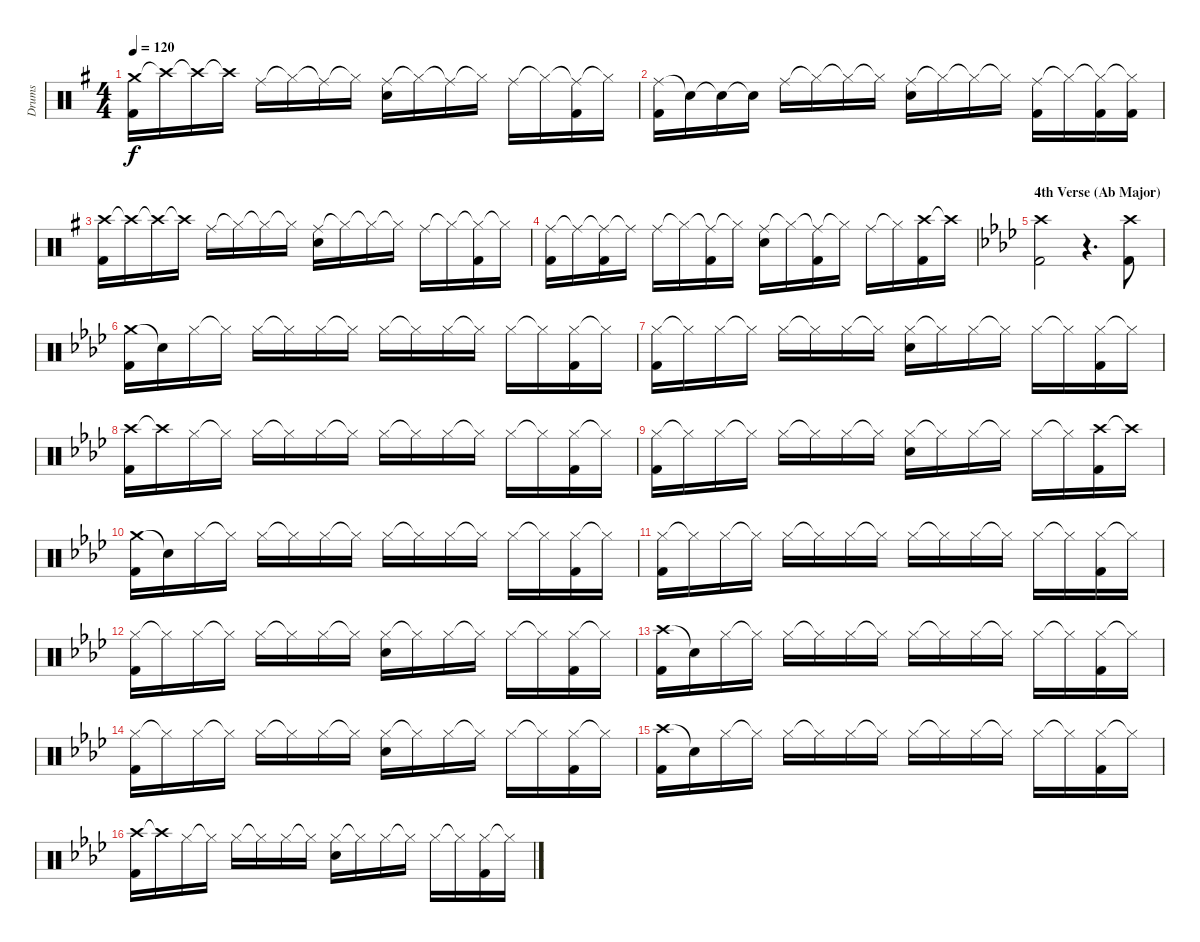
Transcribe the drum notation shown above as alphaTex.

\track ("Drums" "Drums") {instrument percussion}
\staff {score}
\articulation defaults
\ts (4 4)
\tempo 120
\clef neutral
\ks g
("Crash medium (hit)" "Kick (hit) 2").16{dy f} "Crash high (hit)"{t}.16 "Crash high (hit)"{t}.16 "Crash high (hit)"{t}.16 "Ride (middle)".16 "Hi-Hat (closed)"{t}.16 "Ride (middle)"{t}.16 "Hi-Hat (closed)"{t}.16 ("Ride (middle)" "Snare (hit) 2").16 "Hi-Hat (closed)"{t}.16 "Ride (middle)"{t}.16 "Hi-Hat (closed)"{t}.16 "Ride (middle)".16 "Hi-Hat (closed)"{t}.16 ("Ride (middle)"{t} "Kick (hit) 2").16 "Hi-Hat (closed)"{t}.16 |
("Ride (middle)" "Kick (hit) 2").16 "Snare (hit)"{t}.16 "Snare (hit)"{t}.16 "Snare (hit)"{t}.16 "Ride (middle)".16 "Hi-Hat (closed)"{t}.16 "Hi-Hat (closed)"{t}.16 "Hi-Hat (closed)"{t}.16 ("Ride (middle)" "Snare (hit) 2").16 "Hi-Hat (closed)"{t}.16 "Hi-Hat (closed)"{t}.16 "Hi-Hat (closed)"{t}.16 ("Ride (middle)" "Kick (hit) 2").16 "Hi-Hat (closed)"{t}.16 ("Hi-Hat (closed)"{t} "Kick (hit) 2").16 ("Hi-Hat (closed)"{t} "Kick (hit) 2").16 |
("Crash high (hit)" "Kick (hit) 2").16 "Crash high (hit)"{t}.16 "Crash high (hit)"{t}.16 "Crash high (hit)"{t}.16 "Ride (middle)".16 "Hi-Hat (closed)"{t}.16 "Hi-Hat (closed)"{t}.16 "Hi-Hat (closed)"{t}.16 ("Ride (middle)" "Snare (hit) 2").16 "Hi-Hat (closed)"{t}.16 "Hi-Hat (closed)"{t}.16 "Hi-Hat (closed)"{t}.16 "Ride (middle)".16 "Hi-Hat (closed)"{t}.16 ("Hi-Hat (closed)"{t} "Kick (hit) 2").16 "Hi-Hat (closed)"{t}.16 |
("Ride (middle)" "Kick (hit) 2").16 "Ride (middle)"{t}.16 ("Ride (middle)"{t} "Kick (hit) 2").16 "Ride (middle)"{t}.16 "Ride (middle)".16 "Hi-Hat (closed)"{t}.16 ("Ride (middle)"{t} "Kick (hit) 2").16 "Hi-Hat (closed)"{t}.16 ("Ride (middle)" "Snare (hit) 2").16 "Hi-Hat (closed)"{t}.16 ("Ride (middle)"{t} "Kick (hit) 2").16 "Hi-Hat (closed)"{t}.16 "Ride (middle)".16 "Hi-Hat (closed)"{t}.16 ("Crash high (hit)" "Kick (hit) 2").16 "Crash high (hit)"{t}.16 |
\section ("" "4th Verse (Ab Major)")
\ks ab
("Crash high (hit)" "Kick (hit) 2").2 r.4{d} ("Crash high (hit)" "Kick (hit) 2").8 |
("Crash medium (hit)" "Kick (hit) 2").16 "Snare (hit)"{t}.16 "Hi-Hat (closed)".16 "Hi-Hat (closed)"{t}.16 "Hi-Hat (closed)".16 "Hi-Hat (closed)"{t}.16 "Hi-Hat (closed)".16 "Hi-Hat (closed)"{t}.16 "Hi-Hat (closed)".16 "Hi-Hat (closed)"{t}.16 "Hi-Hat (closed)".16 "Hi-Hat (closed)"{t}.16 "Hi-Hat (closed)".16 "Hi-Hat (closed)"{t}.16 ("Hi-Hat (closed)" "Kick (hit) 2").16 "Hi-Hat (closed)"{t}.16 |
("Hi-Hat (closed)" "Kick (hit) 2").16 "Hi-Hat (closed)"{t}.16 "Hi-Hat (closed)".16 "Hi-Hat (closed)"{t}.16 "Hi-Hat (closed)".16 "Hi-Hat (closed)"{t}.16 "Hi-Hat (closed)".16 "Hi-Hat (closed)"{t}.16 ("Hi-Hat (closed)" "Snare (hit) 2").16 "Hi-Hat (closed)"{t}.16 "Hi-Hat (closed)".16 "Hi-Hat (closed)"{t}.16 "Hi-Hat (closed)".16 "Hi-Hat (closed)"{t}.16 ("Hi-Hat (closed)" "Kick (hit) 2").16 "Hi-Hat (closed)"{t}.16 |
("Crash high (hit)" "Kick (hit) 2").16 "Crash high (hit)"{t}.16 "Hi-Hat (closed)".16 "Hi-Hat (closed)"{t}.16 "Hi-Hat (closed)".16 "Hi-Hat (closed)"{t}.16 "Hi-Hat (closed)".16 "Hi-Hat (closed)"{t}.16 "Hi-Hat (closed)".16 "Hi-Hat (closed)"{t}.16 "Hi-Hat (closed)".16 "Hi-Hat (closed)"{t}.16 "Hi-Hat (closed)".16 "Hi-Hat (closed)"{t}.16 ("Hi-Hat (closed)" "Kick (hit) 2").16 "Hi-Hat (closed)"{t}.16 |
("Hi-Hat (closed)" "Kick (hit) 2").16 "Hi-Hat (closed)"{t}.16 "Hi-Hat (closed)".16 "Hi-Hat (closed)"{t}.16 "Hi-Hat (closed)".16 "Hi-Hat (closed)"{t}.16 "Hi-Hat (closed)".16 "Hi-Hat (closed)"{t}.16 ("Hi-Hat (closed)" "Snare (hit) 2").16 "Hi-Hat (closed)"{t}.16 "Hi-Hat (closed)".16 "Hi-Hat (closed)"{t}.16 "Hi-Hat (closed)".16 "Hi-Hat (closed)"{t}.16 ("Crash high (hit)" "Kick (hit) 2").16 "Crash high (hit)"{t}.16 |
("Crash medium (hit)" "Kick (hit) 2").16 "Snare (hit)"{t}.16 "Hi-Hat (closed)".16 "Hi-Hat (closed)"{t}.16 "Hi-Hat (closed)".16 "Hi-Hat (closed)"{t}.16 "Hi-Hat (closed)".16 "Hi-Hat (closed)"{t}.16 "Hi-Hat (closed)".16 "Hi-Hat (closed)"{t}.16 "Hi-Hat (closed)".16 "Hi-Hat (closed)"{t}.16 "Hi-Hat (closed)".16 "Hi-Hat (closed)"{t}.16 ("Hi-Hat (closed)" "Kick (hit) 2").16 "Hi-Hat (closed)"{t}.16 |
("Hi-Hat (closed)" "Kick (hit) 2").16 "Hi-Hat (closed)"{t}.16 "Hi-Hat (closed)".16 "Hi-Hat (closed)"{t}.16 "Hi-Hat (closed)".16 "Hi-Hat (closed)"{t}.16 "Hi-Hat (closed)".16 "Hi-Hat (closed)"{t}.16 "Hi-Hat (closed)".16 "Hi-Hat (closed)"{t}.16 "Hi-Hat (closed)".16 "Hi-Hat (closed)"{t}.16 "Hi-Hat (closed)".16 "Hi-Hat (closed)"{t}.16 ("Hi-Hat (closed)" "Kick (hit) 2").16 "Hi-Hat (closed)"{t}.16 |
("Hi-Hat (closed)" "Kick (hit) 2").16 "Hi-Hat (closed)"{t}.16 "Hi-Hat (closed)".16 "Hi-Hat (closed)"{t}.16 "Hi-Hat (closed)".16 "Hi-Hat (closed)"{t}.16 "Hi-Hat (closed)".16 "Hi-Hat (closed)"{t}.16 ("Hi-Hat (closed)" "Snare (hit) 2").16 "Hi-Hat (closed)"{t}.16 "Hi-Hat (closed)".16 "Hi-Hat (closed)"{t}.16 "Hi-Hat (closed)".16 "Hi-Hat (closed)"{t}.16 ("Hi-Hat (closed)" "Kick (hit) 2").16 "Hi-Hat (closed)"{t}.16 |
("Crash high (hit)" "Kick (hit) 2").16 "Snare (hit)"{t}.16 "Hi-Hat (closed)".16 "Hi-Hat (closed)"{t}.16 "Hi-Hat (closed)".16 "Hi-Hat (closed)"{t}.16 "Hi-Hat (closed)".16 "Hi-Hat (closed)"{t}.16 "Hi-Hat (closed)".16 "Hi-Hat (closed)"{t}.16 "Hi-Hat (closed)".16 "Hi-Hat (closed)"{t}.16 "Hi-Hat (closed)".16 "Hi-Hat (closed)"{t}.16 ("Hi-Hat (closed)" "Kick (hit) 2").16 "Hi-Hat (closed)"{t}.16 |
("Hi-Hat (closed)" "Kick (hit) 2").16 "Hi-Hat (closed)"{t}.16 "Hi-Hat (closed)".16 "Hi-Hat (closed)"{t}.16 "Hi-Hat (closed)".16 "Hi-Hat (closed)"{t}.16 "Hi-Hat (closed)".16 "Hi-Hat (closed)"{t}.16 ("Hi-Hat (closed)" "Snare (hit) 2").16 "Hi-Hat (closed)"{t}.16 "Hi-Hat (closed)".16 "Hi-Hat (closed)"{t}.16 "Hi-Hat (closed)".16 "Hi-Hat (closed)"{t}.16 ("Hi-Hat (closed)" "Kick (hit) 2").16 "Hi-Hat (closed)"{t}.16 |
("Crash high (hit)" "Kick (hit) 2").16 "Snare (hit)"{t}.16 "Hi-Hat (closed)".16 "Hi-Hat (closed)"{t}.16 "Hi-Hat (closed)".16 "Hi-Hat (closed)"{t}.16 "Hi-Hat (closed)".16 "Hi-Hat (closed)"{t}.16 "Hi-Hat (closed)".16 "Hi-Hat (closed)"{t}.16 "Hi-Hat (closed)".16 "Hi-Hat (closed)"{t}.16 "Hi-Hat (closed)".16 "Hi-Hat (closed)"{t}.16 ("Hi-Hat (closed)" "Kick (hit) 2").16 "Hi-Hat (closed)"{t}.16 |
("Crash high (hit)" "Kick (hit) 2").16 "Crash high (hit)"{t}.16 "Hi-Hat (closed)".16 "Hi-Hat (closed)"{t}.16 "Hi-Hat (closed)".16 "Hi-Hat (closed)"{t}.16 "Hi-Hat (closed)".16 "Hi-Hat (closed)"{t}.16 ("Hi-Hat (closed)" "Snare (hit) 2").16 "Hi-Hat (closed)"{t}.16 "Hi-Hat (closed)".16 "Hi-Hat (closed)"{t}.16 "Hi-Hat (closed)".16 "Hi-Hat (closed)"{t}.16 ("Hi-Hat (closed)" "Kick (hit) 2").16 "Hi-Hat (closed)"{t}.16
